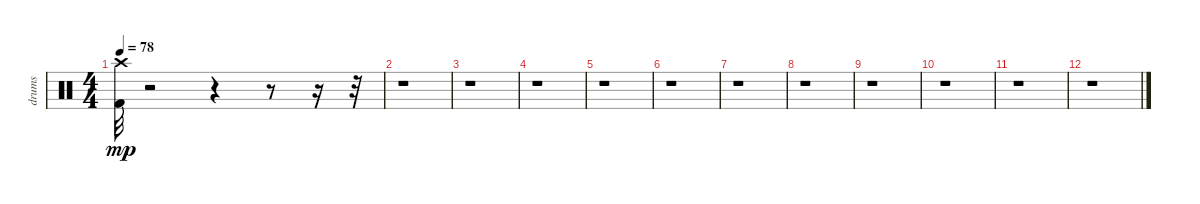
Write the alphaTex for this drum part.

\track ("drums" "drums") {instrument percussion}
\staff {score}
\articulation defaults
\ts (4 4)
\tempo 78
\clef neutral
\ks c
("Crash high (hit)" "Kick (hit) 2").32{dy mp} r.2 r.4 r.8 r.16 r.32 |
r.1 |
r.1 |
r.1 |
r.1 |
r.1 |
r.1 |
r.1 |
r.1 |
r.1 |
r.1 |
r.1
